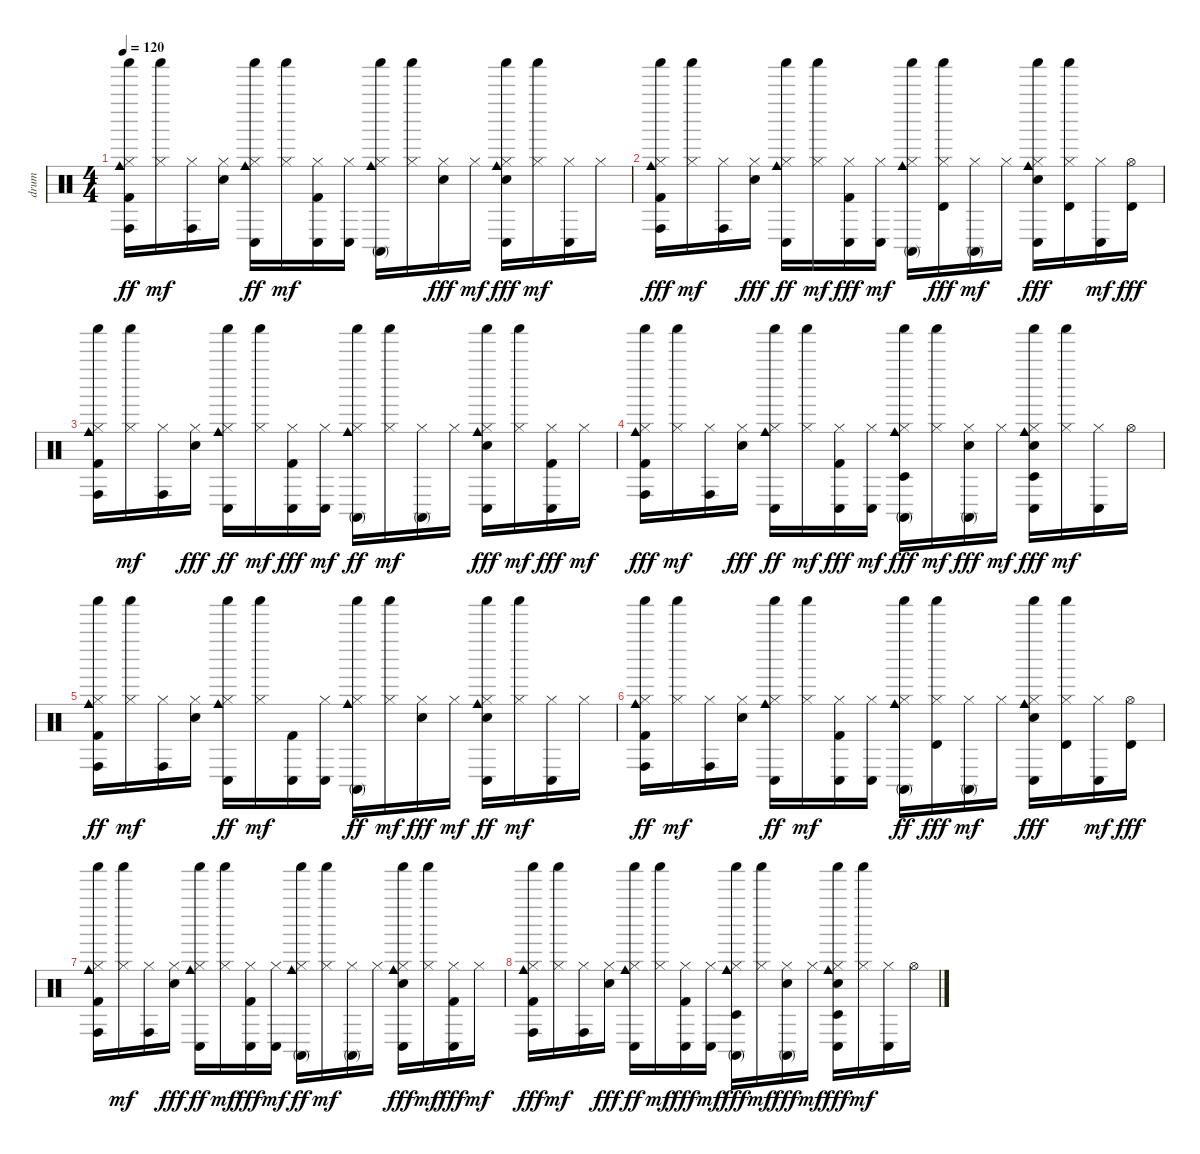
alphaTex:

\track ("drum" "drum") {instrument percussion}
\staff {score}
\articulation defaults
\ts (4 4)
\tempo 120
\clef neutral
\ks c
("Conga high (hit)" "Shaker (hit)" "Cowbell medium (hit)" "Kick (hit) 2" "Hi-Hat (closed)").16{dy ff} ("Shaker (hit)" "Hi-Hat (closed)").16{dy mf} ("Conga high (hit)" "Hi-Hat (closed)").16 ("Electric Snare (hit)" "Hi-Hat (closed)").16 ("Conga low (hit)" "Shaker (hit)" "Cowbell medium (hit)" "Hi-Hat (closed)").16{dy ff} ("Shaker (hit)" "Hi-Hat (closed)").16{dy mf} ("Conga low (hit)" "Kick (hit) 2" "Hi-Hat (closed)").16 ("Conga low (hit)" "Hi-Hat (closed)").16 ("Conga high (mute)" "Cowbell medium (hit)" "Hi-Hat (closed)" "Shaker (hit)").16 ("Shaker (hit)" "Hi-Hat (closed)").16 ("Hi-Hat (closed)" "Electric Snare (hit)").16{dy fff} "Hi-Hat (closed)".16{dy mf} ("Conga low (hit)" "Shaker (hit)" "Cowbell medium (hit)" "Hi-Hat (closed)" "Electric Snare (hit)").16{dy fff} ("Hi-Hat (closed)" "Shaker (hit)").16{dy mf} ("Conga low (hit)" "Hi-Hat (closed)").16 "Hi-Hat (closed)".16 |
("Conga high (hit)" "Shaker (hit)" "Cowbell medium (hit)" "Hi-Hat (closed)" "Kick (hit) 2").16{dy fff} ("Shaker (hit)" "Hi-Hat (closed)").16{dy mf} ("Conga high (hit)" "Hi-Hat (closed)").16 ("Hi-Hat (closed)" "Electric Snare (hit)").16{dy fff} ("Conga low (hit)" "Shaker (hit)" "Cowbell medium (hit)" "Hi-Hat (closed)").16{dy ff} ("Shaker (hit)" "Hi-Hat (closed)").16{dy mf} ("Conga low (hit)" "Hi-Hat (closed)" "Kick (hit) 2").16{dy fff} ("Conga low (hit)" "Hi-Hat (closed)").16{dy mf} ("Conga high (mute)" "Cowbell medium (hit)" "Hi-Hat (closed)" "Shaker (hit)").16 ("Shaker (hit)" "Hi-Hat (closed)" "Timbale high (hit)").16{dy fff} ("Conga high (mute)" "Hi-Hat (closed)").16{dy mf} "Hi-Hat (closed)".16 ("Conga low (hit)" "Cowbell medium (hit)" "Shaker (hit)" "Hi-Hat (closed)" "Electric Snare (hit)").16{dy fff} ("Hi-Hat (closed)" "Shaker (hit)" "Timbale high (hit)").16 ("Conga low (hit)" "Hi-Hat (closed)").16{dy mf} ("Hi-Hat (open)" "Timbale high (hit)").16{dy fff} |
("Conga high (hit)" "Shaker (hit)" "Cowbell medium (hit)" "Hi-Hat (closed)" "Kick (hit) 2").16 ("Shaker (hit)" "Hi-Hat (closed)").16{dy mf} ("Conga high (hit)" "Hi-Hat (closed)").16 ("Hi-Hat (closed)" "Electric Snare (hit)").16{dy fff} ("Conga low (hit)" "Cowbell medium (hit)" "Shaker (hit)" "Hi-Hat (closed)").16{dy ff} ("Shaker (hit)" "Hi-Hat (closed)").16{dy mf} ("Conga low (hit)" "Hi-Hat (closed)" "Kick (hit) 2").16{dy fff} ("Conga low (hit)" "Hi-Hat (closed)").16{dy mf} ("Conga high (mute)" "Cowbell medium (hit)" "Shaker (hit)" "Hi-Hat (closed)").16{dy ff} ("Shaker (hit)" "Hi-Hat (closed)").16{dy mf} ("Conga high (mute)" "Hi-Hat (closed)").16 "Hi-Hat (closed)".16 ("Conga low (hit)" "Cowbell medium (hit)" "Shaker (hit)" "Hi-Hat (closed)" "Electric Snare (hit)").16{dy fff} ("Shaker (hit)" "Hi-Hat (closed)").16{dy mf} ("Conga low (hit)" "Hi-Hat (closed)" "Kick (hit) 2").16{dy fff} "Hi-Hat (closed)".16{dy mf} |
("Conga high (hit)" "Cowbell medium (hit)" "Shaker (hit)" "Hi-Hat (closed)" "Kick (hit) 2").16{dy fff} ("Shaker (hit)" "Hi-Hat (closed)").16{dy mf} ("Conga high (hit)" "Hi-Hat (closed)").16 ("Hi-Hat (closed)" "Electric Snare (hit)").16{dy fff} ("Conga low (hit)" "Cowbell medium (hit)" "Shaker (hit)" "Hi-Hat (closed)").16{dy ff} ("Hi-Hat (closed)" "Shaker (hit)").16{dy mf} ("Conga low (hit)" "Hi-Hat (closed)" "Kick (hit) 2").16{dy fff} ("Conga low (hit)" "Hi-Hat (closed)").16{dy mf} ("Conga high (mute)" "Cowbell medium (hit)" "Shaker (hit)" "Hi-Hat (closed)" "Timbale low (hit)").16{dy fff} ("Shaker (hit)" "Hi-Hat (closed)").16{dy mf} ("Conga high (mute)" "Hi-Hat (closed)" "Electric Snare (hit)").16{dy fff} "Hi-Hat (closed)".16{dy mf} ("Conga low (hit)" "Hi-Hat (closed)" "Shaker (hit)" "Cowbell medium (hit)" "Electric Snare (hit)" "Timbale low (hit)").16{dy fff} ("Shaker (hit)" "Hi-Hat (closed)").16{dy mf} ("Conga low (hit)" "Hi-Hat (closed)").16 "Hi-Hat (open)".16 |
("Conga high (hit)" "Shaker (hit)" "Cowbell medium (hit)" "Kick (hit) 2" "Hi-Hat (closed)").16{dy ff} ("Shaker (hit)" "Hi-Hat (closed)").16{dy mf} ("Conga high (hit)" "Hi-Hat (closed)").16 ("Electric Snare (hit)" "Hi-Hat (closed)").16 ("Conga low (hit)" "Shaker (hit)" "Cowbell medium (hit)" "Hi-Hat (closed)").16{dy ff} ("Shaker (hit)" "Hi-Hat (closed)").16{dy mf} ("Conga low (hit)" "Kick (hit) 2").16 ("Conga low (hit)" "Hi-Hat (closed)").16 ("Conga high (mute)" "Cowbell medium (hit)" "Shaker (hit)" "Hi-Hat (closed)").16{dy ff} ("Shaker (hit)" "Hi-Hat (closed)").16{dy mf} ("Hi-Hat (closed)" "Electric Snare (hit)").16{dy fff} "Hi-Hat (closed)".16{dy mf} ("Conga low (hit)" "Shaker (hit)" "Cowbell medium (hit)" "Electric Snare (hit)" "Hi-Hat (closed)").16{dy ff} ("Shaker (hit)" "Hi-Hat (closed)").16{dy mf} ("Hi-Hat (closed)" "Conga low (hit)").16 "Hi-Hat (closed)".16 |
("Conga high (hit)" "Shaker (hit)" "Cowbell medium (hit)" "Kick (hit) 2" "Hi-Hat (closed)").16{dy ff} ("Shaker (hit)" "Hi-Hat (closed)").16{dy mf} ("Conga high (hit)" "Hi-Hat (closed)").16 ("Electric Snare (hit)" "Hi-Hat (closed)").16 ("Cowbell medium (hit)" "Conga low (hit)" "Shaker (hit)" "Hi-Hat (closed)").16{dy ff} ("Shaker (hit)" "Hi-Hat (closed)").16{dy mf} ("Kick (hit) 2" "Hi-Hat (closed)" "Conga low (hit)").16 ("Conga low (hit)" "Hi-Hat (closed)").16 ("Conga high (mute)" "Cowbell medium (hit)" "Shaker (hit)" "Hi-Hat (closed)").16{dy ff} ("Shaker (hit)" "Hi-Hat (closed)" "Timbale high (hit)").16{dy fff} ("Conga high (mute)" "Hi-Hat (closed)").16{dy mf} "Hi-Hat (closed)".16 ("Conga low (hit)" "Cowbell medium (hit)" "Shaker (hit)" "Hi-Hat (closed)" "Electric Snare (hit)").16{dy fff} ("Shaker (hit)" "Hi-Hat (closed)" "Timbale high (hit)").16 ("Conga low (hit)" "Hi-Hat (closed)").16{dy mf} ("Hi-Hat (open)" "Timbale high (hit)").16{dy fff} |
("Conga high (hit)" "Cowbell medium (hit)" "Shaker (hit)" "Hi-Hat (closed)" "Kick (hit) 2").16 ("Hi-Hat (closed)" "Shaker (hit)").16{dy mf} ("Conga high (hit)" "Hi-Hat (closed)").16 ("Hi-Hat (closed)" "Electric Snare (hit)").16{dy fff} ("Conga low (hit)" "Cowbell medium (hit)" "Shaker (hit)" "Hi-Hat (closed)").16{dy ff} ("Shaker (hit)" "Hi-Hat (closed)").16{dy mf} ("Conga low (hit)" "Hi-Hat (closed)" "Kick (hit) 2").16{dy fff} ("Conga low (hit)" "Hi-Hat (closed)").16{dy mf} ("Conga high (mute)" "Cowbell medium (hit)" "Shaker (hit)" "Hi-Hat (closed)").16{dy ff} ("Shaker (hit)" "Hi-Hat (closed)").16{dy mf} ("Hi-Hat (closed)" "Conga high (mute)").16 "Hi-Hat (closed)".16 ("Conga low (hit)" "Cowbell medium (hit)" "Shaker (hit)" "Hi-Hat (closed)" "Electric Snare (hit)").16{dy fff} ("Shaker (hit)" "Hi-Hat (closed)").16{dy mf} ("Conga low (hit)" "Hi-Hat (closed)" "Kick (hit) 2").16{dy fff} "Hi-Hat (closed)".16{dy mf} |
("Conga high (hit)" "Cowbell medium (hit)" "Shaker (hit)" "Hi-Hat (closed)" "Kick (hit) 2").16{dy fff} ("Shaker (hit)" "Hi-Hat (closed)").16{dy mf} ("Conga high (hit)" "Hi-Hat (closed)").16 ("Hi-Hat (closed)" "Electric Snare (hit)").16{dy fff} ("Conga low (hit)" "Cowbell medium (hit)" "Shaker (hit)" "Hi-Hat (closed)").16{dy ff} ("Shaker (hit)" "Hi-Hat (closed)").16{dy mf} ("Hi-Hat (closed)" "Conga low (hit)" "Kick (hit) 2").16{dy fff} ("Conga low (hit)" "Hi-Hat (closed)").16{dy mf} ("Conga high (mute)" "Cowbell medium (hit)" "Shaker (hit)" "Hi-Hat (closed)" "Timbale low (hit)").16{dy fff} ("Shaker (hit)" "Hi-Hat (closed)").16{dy mf} ("Conga high (mute)" "Hi-Hat (closed)" "Electric Snare (hit)").16{dy fff} "Hi-Hat (closed)".16{dy mf} ("Conga low (hit)" "Hi-Hat (closed)" "Shaker (hit)" "Cowbell medium (hit)" "Electric Snare (hit)" "Timbale low (hit)").16{dy fff} ("Shaker (hit)" "Hi-Hat (closed)").16{dy mf} ("Conga low (hit)" "Hi-Hat (closed)").16 "Hi-Hat (open)".16
